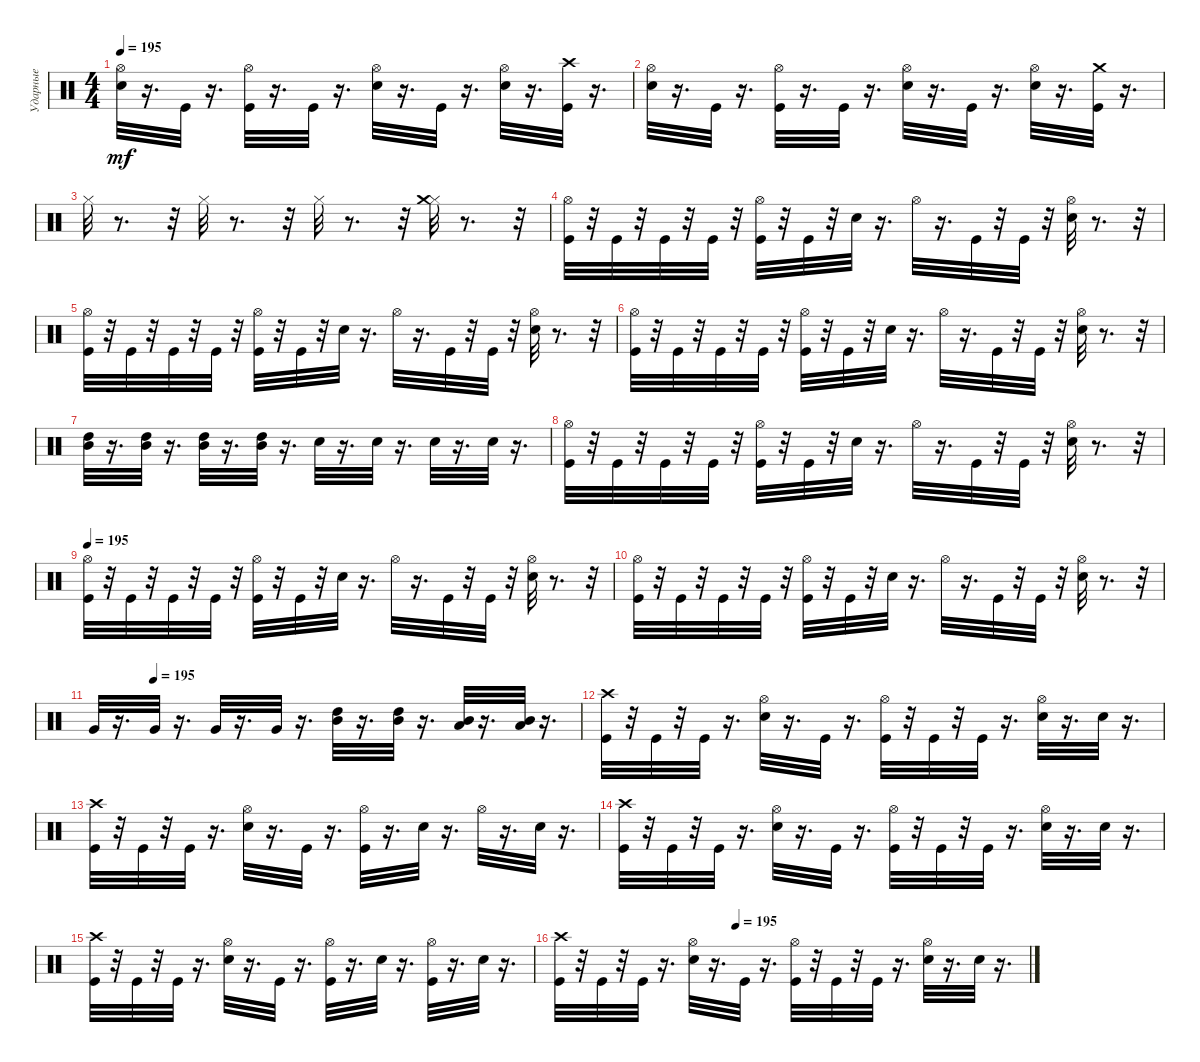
\track ("Ударные" "Ударные") {instrument percussion}
\staff {score}
\articulation defaults
\ts (4 4)
\tempo 195
\clef neutral
\ks c
("Hi-Hat (open)" "Electric Snare (hit)").32{dy mf} r.16{d} "Kick (hit)".32 r.16{d} ("Hi-Hat (open)" "Kick (hit)").32 r.16{d} "Kick (hit)".32 r.16{d} ("Hi-Hat (open)" "Electric Snare (hit)").32 r.16{d} "Kick (hit)".32 r.16{d} ("Electric Snare (hit)" "Hi-Hat (open)").32 r.16{d} ("Crash high (hit)" "Kick (hit)").32 r.16{d} |
("Electric Snare (hit)" "Hi-Hat (open)").32 r.16{d} "Kick (hit)".32 r.16{d} ("Kick (hit)" "Hi-Hat (open)").32 r.16{d} "Kick (hit)".32 r.16{d} ("Electric Snare (hit)" "Hi-Hat (open)").32 r.16{d} "Kick (hit)".32 r.16{d} ("Electric Snare (hit)" "Hi-Hat (open)").32 r.16{d} ("Kick (hit)" "Crash medium (hit)").32 r.16{d} |
"Hi-Hat (closed)".32 r.8{d} r.32 "Hi-Hat (closed)".32 r.8{d} r.32 "Hi-Hat (closed)".32 r.8{d} r.32 ("Hi-Hat (closed)" "Crash medium (hit)").32 r.8{d} r.32 |
("Kick (hit)" "Hi-Hat (open)").32 r.32 "Kick (hit)".32 r.32 "Kick (hit)".32 r.32 "Kick (hit)".32 r.32 ("Kick (hit)" "Hi-Hat (open)").32 r.32 "Kick (hit)".32 r.32 "Electric Snare (hit)".32 r.16{d} "Hi-Hat (open)".32 r.16{d} "Kick (hit)".32 r.32 "Kick (hit)".32 r.32 ("Hi-Hat (open)" "Electric Snare (hit)").32 r.8{d} r.32 |
("Kick (hit)" "Hi-Hat (open)").32 r.32 "Kick (hit)".32 r.32 "Kick (hit)".32 r.32 "Kick (hit)".32 r.32 ("Kick (hit)" "Hi-Hat (open)").32 r.32 "Kick (hit)".32 r.32 "Electric Snare (hit)".32 r.16{d} "Hi-Hat (open)".32 r.16{d} "Kick (hit)".32 r.32 "Kick (hit)".32 r.32 ("Electric Snare (hit)" "Hi-Hat (open)").32 r.8{d} r.32 |
("Kick (hit)" "Hi-Hat (open)").32 r.32 "Kick (hit)".32 r.32 "Kick (hit)".32 r.32 "Kick (hit)".32 r.32 ("Kick (hit)" "Hi-Hat (open)").32 r.32 "Kick (hit)".32 r.32 "Electric Snare (hit)".32 r.16{d} "Hi-Hat (open)".32 r.16{d} "Kick (hit)".32 r.32 "Kick (hit)".32 r.32 ("Electric Snare (hit)" "Hi-Hat (open)").32 r.8{d} r.32 |
("Mid Tom (hit)" "High Tom (hit)").32 r.16{d} ("Mid Tom (hit)" "High Tom (hit)").32 r.16{d} ("High Tom (hit)" "Mid Tom (hit)").32 r.16{d} ("High Tom (hit)" "Mid Tom (hit)").32 r.16{d} "Electric Snare (hit)".32 r.16{d} "Electric Snare (hit)".32 r.16{d} "Electric Snare (hit)".32 r.16{d} "Electric Snare (hit)".32 r.16{d} |
("Kick (hit)" "Hi-Hat (open)").32 r.32 "Kick (hit)".32 r.32 "Kick (hit)".32 r.32 "Kick (hit)".32 r.32 ("Kick (hit)" "Hi-Hat (open)").32 r.32 "Kick (hit)".32 r.32 "Electric Snare (hit)".32 r.16{d} "Hi-Hat (open)".32 r.16{d} "Kick (hit)".32 r.32 "Kick (hit)".32 r.32 ("Hi-Hat (open)" "Electric Snare (hit)").32 r.8{d} r.32 |
\tempo 195
("Kick (hit)" "Hi-Hat (open)").32 r.32 "Kick (hit)".32 r.32 "Kick (hit)".32 r.32 "Kick (hit)".32 r.32 ("Kick (hit)" "Hi-Hat (open)").32 r.32 "Kick (hit)".32 r.32 "Electric Snare (hit)".32 r.16{d} "Hi-Hat (open)".32 r.16{d} "Kick (hit)".32 r.32 "Kick (hit)".32 r.32 ("Electric Snare (hit)" "Hi-Hat (open)").32 r.8{d} r.32 |
("Kick (hit)" "Hi-Hat (open)").32 r.32 "Kick (hit)".32 r.32 "Kick (hit)".32 r.32 "Kick (hit)".32 r.32 ("Kick (hit)" "Hi-Hat (open)").32 r.32 "Kick (hit)".32 r.32 "Electric Snare (hit)".32 r.16{d} "Hi-Hat (open)".32 r.16{d} "Kick (hit)".32 r.32 "Kick (hit)".32 r.32 ("Electric Snare (hit)" "Hi-Hat (open)").32 r.8{d} r.32 |
\tempo (195 0.125)
"Very Low Tom (hit)".32 r.16{d} "Very Low Tom (hit)".32 r.16{d} "Very Low Tom (hit)".32 r.16{d} "Very Low Tom (hit)".32 r.16{d} ("Mid Tom (hit)" "High Tom (hit)").32 r.16{d} ("Mid Tom (hit)" "High Tom (hit)").32 r.16{d} ("Low Tom (hit)" "Mid Tom (hit)").32 r.16{d} ("Low Tom (hit)" "Mid Tom (hit)").32 r.16{d} |
("Kick (hit)" "Crash high (hit)").32 r.32 "Kick (hit)".32 r.32 "Kick (hit)".32 r.16{d} ("Hi-Hat (open)" "Electric Snare (hit)").32 r.16{d} "Kick (hit)".32 r.16{d} ("Kick (hit)" "Hi-Hat (open)").32 r.32 "Kick (hit)".32 r.32 "Kick (hit)".32 r.16{d} ("Hi-Hat (open)" "Electric Snare (hit)").32 r.16{d} "Electric Snare (hit)".32 r.16{d} |
("Crash high (hit)" "Kick (hit)").32 r.32 "Kick (hit)".32 r.32 "Kick (hit)".32 r.16{d} ("Electric Snare (hit)" "Hi-Hat (open)").32 r.16{d} "Kick (hit)".32 r.16{d} ("Kick (hit)" "Hi-Hat (open)").32 r.16{d} "Electric Snare (hit)".32 r.16{d} "Hi-Hat (open)".32 r.16{d} "Electric Snare (hit)".32 r.16{d} |
("Crash high (hit)" "Kick (hit)").32 r.32 "Kick (hit)".32 r.32 "Kick (hit)".32 r.16{d} ("Electric Snare (hit)" "Hi-Hat (open)").32 r.16{d} "Kick (hit)".32 r.16{d} ("Kick (hit)" "Hi-Hat (open)").32 r.32 "Kick (hit)".32 r.32 "Kick (hit)".32 r.16{d} ("Electric Snare (hit)" "Hi-Hat (open)").32 r.16{d} "Electric Snare (hit)".32 r.16{d} |
("Crash high (hit)" "Kick (hit)").32 r.32 "Kick (hit)".32 r.32 "Kick (hit)".32 r.16{d} ("Electric Snare (hit)" "Hi-Hat (open)").32 r.16{d} "Kick (hit)".32 r.16{d} ("Kick (hit)" "Hi-Hat (open)").32 r.16{d} "Electric Snare (hit)".32 r.16{d} ("Kick (hit)" "Hi-Hat (open)").32 r.16{d} "Electric Snare (hit)".32 r.16{d} |
\tempo (195 0.375)
("Crash high (hit)" "Kick (hit)").32 r.32 "Kick (hit)".32 r.32 "Kick (hit)".32 r.16{d} ("Electric Snare (hit)" "Hi-Hat (open)").32 r.16{d} "Kick (hit)".32 r.16{d} ("Kick (hit)" "Hi-Hat (open)").32 r.32 "Kick (hit)".32 r.32 "Kick (hit)".32 r.16{d} ("Electric Snare (hit)" "Hi-Hat (open)").32 r.16{d} "Electric Snare (hit)".32 r.16{d}
